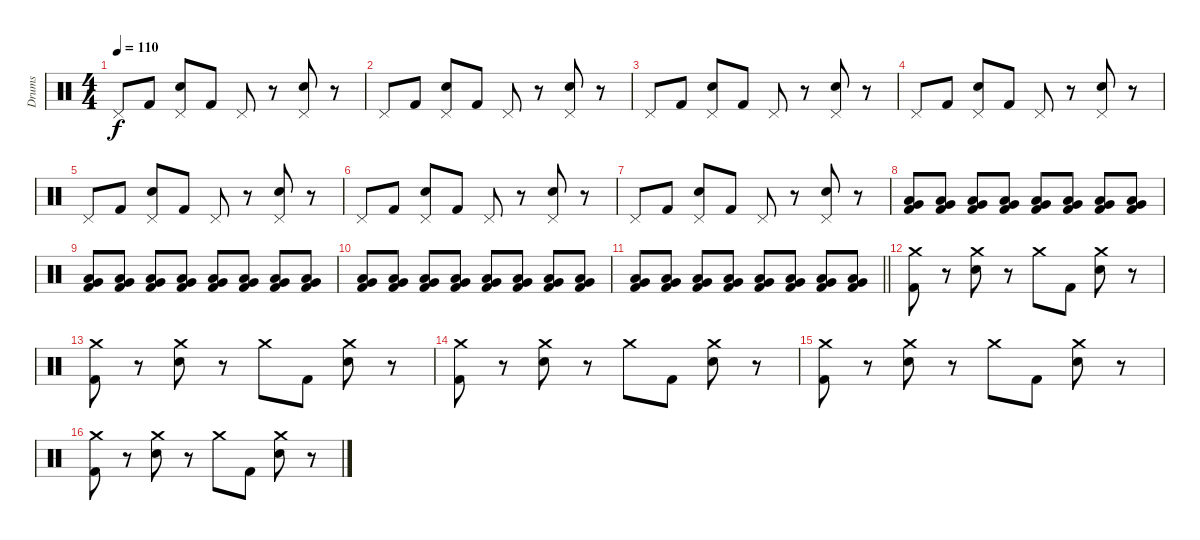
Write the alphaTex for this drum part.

\track ("Drums" "Drums") {instrument percussion}
\staff {score}
\articulation defaults
\ts (4 4)
\tempo 110
\clef neutral
\ks c "Pedal Hi-Hat (hit)".8{dy f} "Kick (hit) 2".8
("Pedal Hi-Hat (hit)" "Electric Snare (hit)").8 "Kick (hit) 2".8 "Pedal Hi-Hat (hit)".8 r.8 ("Pedal Hi-Hat (hit)" "Electric Snare (hit)").8 r.8 |
"Pedal Hi-Hat (hit)".8 "Kick (hit) 2".8 ("Pedal Hi-Hat (hit)" "Electric Snare (hit)").8 "Kick (hit) 2".8 "Pedal Hi-Hat (hit)".8 r.8 ("Pedal Hi-Hat (hit)" "Electric Snare (hit)").8 r.8 |
"Pedal Hi-Hat (hit)".8 "Kick (hit) 2".8 ("Pedal Hi-Hat (hit)" "Electric Snare (hit)").8 "Kick (hit) 2".8 "Pedal Hi-Hat (hit)".8 r.8 ("Pedal Hi-Hat (hit)" "Electric Snare (hit)").8 r.8 |
"Pedal Hi-Hat (hit)".8 "Kick (hit) 2".8 ("Pedal Hi-Hat (hit)" "Electric Snare (hit)").8 "Kick (hit) 2".8 "Pedal Hi-Hat (hit)".8 r.8 ("Pedal Hi-Hat (hit)" "Electric Snare (hit)").8 r.8 |
"Pedal Hi-Hat (hit)".8 "Kick (hit) 2".8 ("Pedal Hi-Hat (hit)" "Electric Snare (hit)").8 "Kick (hit) 2".8 "Pedal Hi-Hat (hit)".8 r.8 ("Pedal Hi-Hat (hit)" "Electric Snare (hit)").8 r.8 |
"Pedal Hi-Hat (hit)".8 "Kick (hit) 2".8 ("Pedal Hi-Hat (hit)" "Electric Snare (hit)").8 "Kick (hit) 2".8 "Pedal Hi-Hat (hit)".8 r.8 ("Pedal Hi-Hat (hit)" "Electric Snare (hit)").8 r.8 |
"Pedal Hi-Hat (hit)".8 "Kick (hit) 2".8 ("Pedal Hi-Hat (hit)" "Electric Snare (hit)").8 "Kick (hit) 2".8 "Pedal Hi-Hat (hit)".8 r.8 ("Pedal Hi-Hat (hit)" "Electric Snare (hit)").8 r.8 |
("Very Low Tom (hit)" "Low Floor Tom (hit)" "Kick (hit) 2").8 ("Very Low Tom (hit)" "Low Floor Tom (hit)" "Kick (hit) 2").8 ("Very Low Tom (hit)" "Low Floor Tom (hit)" "Kick (hit) 2").8 ("Very Low Tom (hit)" "Low Floor Tom (hit)" "Kick (hit) 2").8 ("Very Low Tom (hit)" "Low Floor Tom (hit)" "Kick (hit) 2").8 ("Very Low Tom (hit)" "Low Floor Tom (hit)" "Kick (hit) 2").8 ("Very Low Tom (hit)" "Low Floor Tom (hit)" "Kick (hit) 2").8 ("Very Low Tom (hit)" "Low Floor Tom (hit)" "Kick (hit) 2").8 |
("Very Low Tom (hit)" "Low Floor Tom (hit)" "Kick (hit) 2").8 ("Very Low Tom (hit)" "Low Floor Tom (hit)" "Kick (hit) 2").8 ("Very Low Tom (hit)" "Low Floor Tom (hit)" "Kick (hit) 2").8 ("Very Low Tom (hit)" "Low Floor Tom (hit)" "Kick (hit) 2").8 ("Very Low Tom (hit)" "Low Floor Tom (hit)" "Kick (hit) 2").8 ("Very Low Tom (hit)" "Low Floor Tom (hit)" "Kick (hit) 2").8 ("Very Low Tom (hit)" "Low Floor Tom (hit)" "Kick (hit) 2").8 ("Very Low Tom (hit)" "Low Floor Tom (hit)" "Kick (hit) 2").8 |
("Very Low Tom (hit)" "Low Floor Tom (hit)" "Kick (hit) 2").8 ("Very Low Tom (hit)" "Low Floor Tom (hit)" "Kick (hit) 2").8 ("Very Low Tom (hit)" "Low Floor Tom (hit)" "Kick (hit) 2").8 ("Very Low Tom (hit)" "Low Floor Tom (hit)" "Kick (hit) 2").8 ("Very Low Tom (hit)" "Low Floor Tom (hit)" "Kick (hit) 2").8 ("Very Low Tom (hit)" "Low Floor Tom (hit)" "Kick (hit) 2").8 ("Very Low Tom (hit)" "Low Floor Tom (hit)" "Kick (hit) 2").8 ("Very Low Tom (hit)" "Low Floor Tom (hit)" "Kick (hit) 2").8 |
\barLineRight lightlight
("Very Low Tom (hit)" "Low Floor Tom (hit)" "Kick (hit) 2").8 ("Very Low Tom (hit)" "Low Floor Tom (hit)" "Kick (hit) 2").8 ("Very Low Tom (hit)" "Low Floor Tom (hit)" "Kick (hit) 2").8 ("Very Low Tom (hit)" "Low Floor Tom (hit)" "Kick (hit) 2").8 ("Very Low Tom (hit)" "Low Floor Tom (hit)" "Kick (hit) 2").8 ("Very Low Tom (hit)" "Low Floor Tom (hit)" "Kick (hit) 2").8 ("Very Low Tom (hit)" "Low Floor Tom (hit)" "Kick (hit) 2").8 ("Very Low Tom (hit)" "Low Floor Tom (hit)" "Kick (hit) 2").8 |
("Crash medium (hit)" "Kick (hit) 2").8 r.8 ("Crash medium (hit)" "Electric Snare (hit)").8 r.8 "Crash medium (hit)".8 "Kick (hit) 2".8 ("Crash medium (hit)" "Electric Snare (hit)").8 r.8 |
("Crash medium (hit)" "Kick (hit) 2").8 r.8 ("Crash medium (hit)" "Electric Snare (hit)").8 r.8 "Crash medium (hit)".8 "Kick (hit) 2".8 ("Crash medium (hit)" "Electric Snare (hit)").8 r.8 |
("Crash medium (hit)" "Kick (hit) 2").8 r.8 ("Crash medium (hit)" "Electric Snare (hit)").8 r.8 "Crash medium (hit)".8 "Kick (hit) 2".8 ("Crash medium (hit)" "Electric Snare (hit)").8 r.8 |
("Crash medium (hit)" "Kick (hit) 2").8 r.8 ("Crash medium (hit)" "Electric Snare (hit)").8 r.8 "Crash medium (hit)".8 "Kick (hit) 2".8 ("Crash medium (hit)" "Electric Snare (hit)").8 r.8 |
("Crash medium (hit)" "Kick (hit) 2").8 r.8 ("Crash medium (hit)" "Electric Snare (hit)").8 r.8 "Crash medium (hit)".8 "Kick (hit) 2".8 ("Crash medium (hit)" "Electric Snare (hit)").8 r.8
